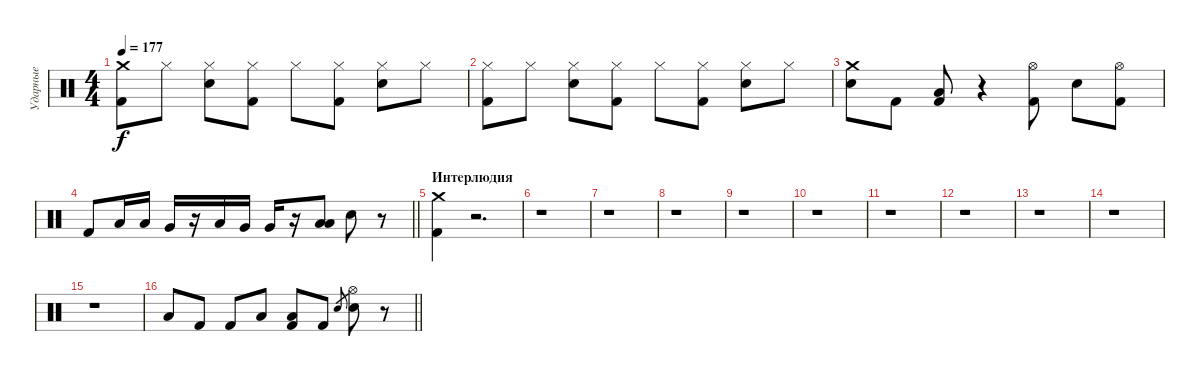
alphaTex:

\track ("Ударные" "Ударные") {instrument percussion}
\staff {score}
\articulation defaults
\ts (4 4)
\tempo 177
\clef neutral
\ks c
("Crash medium (hit)" "Kick (hit) 2").8{dy f} "Hi-Hat (closed)".8 ("Hi-Hat (closed)" "Snare (hit) 2").8 ("Hi-Hat (closed)" "Kick (hit) 2").8 "Hi-Hat (closed)".8 ("Hi-Hat (closed)" "Kick (hit) 2").8 ("Hi-Hat (closed)" "Snare (hit) 2").8 "Hi-Hat (closed)".8 |
("Hi-Hat (closed)" "Kick (hit) 2").8 "Hi-Hat (closed)".8 ("Hi-Hat (closed)" "Snare (hit) 2").8 ("Hi-Hat (closed)" "Kick (hit) 2").8 "Hi-Hat (closed)".8 ("Hi-Hat (closed)" "Kick (hit) 2").8 ("Hi-Hat (closed)" "Snare (hit) 2").8 "Hi-Hat (closed)".8 |
("Crash medium (hit)" "Snare (hit) 2").8 "Kick (hit) 2".8 ("Low Floor Tom (hit)" "Kick (hit) 2").8 r.4 ("Hi-Hat (open)" "Kick (hit) 2").8 "Snare (hit) 2".8 ("Hi-Hat (open)" "Kick (hit) 2").8 |
\barLineRight lightlight "Kick (hit) 2".8 "Low Tom (hit)".16 "Low Floor Tom (hit)".16 "Very Low Tom (hit)".16
r.16 "Low Floor Tom (hit)".16 "Very Low Tom (hit)".16 "Very Low Tom (hit)".16 r.16 ("Low Floor Tom (hit)" "Low Tom (hit)").8 "Snare (hit) 2".8 r.8 |
\section ("" "Интерлюдия")
("Crash medium (hit)" "Kick (hit) 2").4 r.2{d} |
r.1 |
r.1 |
r.1 |
r.1 |
r.1 |
r.1 |
r.1 |
r.1 |
r.1 |
r.1 |
\barLineRight lightlight "Low Tom (hit)".8 "Kick (hit) 2".8 "Kick (hit) 2".8 "Low Tom (hit)".8
("Low Floor Tom (hit)" "Kick (hit) 2").8 "Kick (hit) 2".8 "Snare (hit) 2".8{gr} ("Hi-Hat (open)" "Snare (hit) 2").8 r.8
